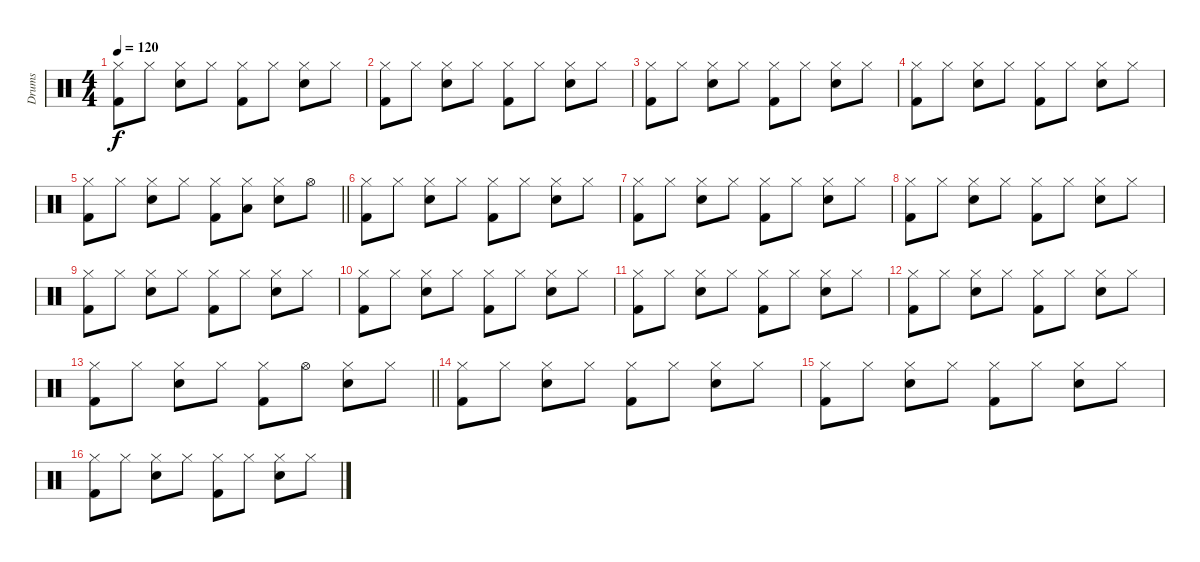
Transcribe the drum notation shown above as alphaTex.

\track ("Drums" "Drums") {instrument percussion}
\staff {score}
\articulation defaults
\ts (4 4)
\tempo 120
\clef neutral
\ks c
("Hi-Hat (closed)" "Kick (hit) 2").8{dy f} "Hi-Hat (closed)".8 ("Hi-Hat (closed)" "Snare (hit) 2").8 "Hi-Hat (closed)".8 ("Hi-Hat (closed)" "Kick (hit) 2").8 "Hi-Hat (closed)".8 ("Hi-Hat (closed)" "Snare (hit) 2").8 "Hi-Hat (closed)".8 |
("Hi-Hat (closed)" "Kick (hit) 2").8 "Hi-Hat (closed)".8 ("Hi-Hat (closed)" "Snare (hit) 2").8 "Hi-Hat (closed)".8 ("Hi-Hat (closed)" "Kick (hit) 2").8 "Hi-Hat (closed)".8 ("Hi-Hat (closed)" "Snare (hit) 2").8 "Hi-Hat (closed)".8 |
("Hi-Hat (closed)" "Kick (hit) 2").8 "Hi-Hat (closed)".8 ("Hi-Hat (closed)" "Snare (hit) 2").8 "Hi-Hat (closed)".8 ("Hi-Hat (closed)" "Kick (hit) 2").8 "Hi-Hat (closed)".8 ("Hi-Hat (closed)" "Snare (hit) 2").8 "Hi-Hat (closed)".8 |
("Hi-Hat (closed)" "Kick (hit) 2").8 "Hi-Hat (closed)".8 ("Hi-Hat (closed)" "Snare (hit) 2").8 "Hi-Hat (closed)".8 ("Hi-Hat (closed)" "Kick (hit) 2").8 "Hi-Hat (closed)".8 ("Hi-Hat (closed)" "Snare (hit) 2").8 "Hi-Hat (closed)".8 |
\barLineRight lightlight
("Hi-Hat (closed)" "Kick (hit) 2").8 "Hi-Hat (closed)".8 ("Hi-Hat (closed)" "Snare (hit) 2").8 "Hi-Hat (closed)".8 ("Hi-Hat (closed)" "Kick (hit) 2").8 ("Hi-Hat (closed)" "Low Tom (hit)").8 ("Hi-Hat (closed)" "Snare (hit) 2").8 "Hi-Hat (open)".8 |
("Hi-Hat (closed)" "Kick (hit) 2").8 "Hi-Hat (closed)".8 ("Hi-Hat (closed)" "Snare (hit) 2").8 "Hi-Hat (closed)".8 ("Hi-Hat (closed)" "Kick (hit) 2").8 "Hi-Hat (closed)".8 ("Hi-Hat (closed)" "Snare (hit) 2").8 "Hi-Hat (closed)".8 |
("Hi-Hat (closed)" "Kick (hit) 2").8 "Hi-Hat (closed)".8 ("Hi-Hat (closed)" "Snare (hit) 2").8 "Hi-Hat (closed)".8 ("Hi-Hat (closed)" "Kick (hit) 2").8 "Hi-Hat (closed)".8 ("Hi-Hat (closed)" "Snare (hit) 2").8 "Hi-Hat (closed)".8 |
("Hi-Hat (closed)" "Kick (hit) 2").8 "Hi-Hat (closed)".8 ("Hi-Hat (closed)" "Snare (hit) 2").8 "Hi-Hat (closed)".8 ("Hi-Hat (closed)" "Kick (hit) 2").8 "Hi-Hat (closed)".8 ("Hi-Hat (closed)" "Snare (hit) 2").8 "Hi-Hat (closed)".8 |
("Hi-Hat (closed)" "Kick (hit) 2").8 "Hi-Hat (closed)".8 ("Hi-Hat (closed)" "Snare (hit) 2").8 "Hi-Hat (closed)".8 ("Hi-Hat (closed)" "Kick (hit) 2").8 "Hi-Hat (closed)".8 ("Hi-Hat (closed)" "Snare (hit) 2").8 "Hi-Hat (closed)".8 |
("Hi-Hat (closed)" "Kick (hit) 2").8 "Hi-Hat (closed)".8 ("Hi-Hat (closed)" "Snare (hit) 2").8 "Hi-Hat (closed)".8 ("Hi-Hat (closed)" "Kick (hit) 2").8 "Hi-Hat (closed)".8 ("Hi-Hat (closed)" "Snare (hit) 2").8 "Hi-Hat (closed)".8 |
("Hi-Hat (closed)" "Kick (hit) 2").8 "Hi-Hat (closed)".8 ("Hi-Hat (closed)" "Snare (hit) 2").8 "Hi-Hat (closed)".8 ("Hi-Hat (closed)" "Kick (hit) 2").8 "Hi-Hat (closed)".8 ("Hi-Hat (closed)" "Snare (hit) 2").8 "Hi-Hat (closed)".8 |
("Hi-Hat (closed)" "Kick (hit) 2").8 "Hi-Hat (closed)".8 ("Hi-Hat (closed)" "Snare (hit) 2").8 "Hi-Hat (closed)".8 ("Hi-Hat (closed)" "Kick (hit) 2").8 "Hi-Hat (closed)".8 ("Hi-Hat (closed)" "Snare (hit) 2").8 "Hi-Hat (closed)".8 |
\barLineRight lightlight
("Hi-Hat (closed)" "Kick (hit) 2").8 "Hi-Hat (closed)".8 ("Hi-Hat (closed)" "Snare (hit) 2").8 "Hi-Hat (closed)".8 ("Hi-Hat (closed)" "Kick (hit) 2").8 "Hi-Hat (open)".8 ("Hi-Hat (closed)" "Snare (hit) 2").8 "Hi-Hat (closed)".8 |
("Hi-Hat (closed)" "Kick (hit) 2").8 "Hi-Hat (closed)".8 ("Hi-Hat (closed)" "Snare (hit) 2").8 "Hi-Hat (closed)".8 ("Hi-Hat (closed)" "Kick (hit) 2").8 "Hi-Hat (closed)".8 ("Hi-Hat (closed)" "Snare (hit) 2").8 "Hi-Hat (closed)".8 |
("Hi-Hat (closed)" "Kick (hit) 2").8 "Hi-Hat (closed)".8 ("Hi-Hat (closed)" "Snare (hit) 2").8 "Hi-Hat (closed)".8 ("Hi-Hat (closed)" "Kick (hit) 2").8 "Hi-Hat (closed)".8 ("Hi-Hat (closed)" "Snare (hit) 2").8 "Hi-Hat (closed)".8 |
("Hi-Hat (closed)" "Kick (hit) 2").8 "Hi-Hat (closed)".8 ("Hi-Hat (closed)" "Snare (hit) 2").8 "Hi-Hat (closed)".8 ("Hi-Hat (closed)" "Kick (hit) 2").8 "Hi-Hat (closed)".8 ("Hi-Hat (closed)" "Snare (hit) 2").8 "Hi-Hat (closed)".8
